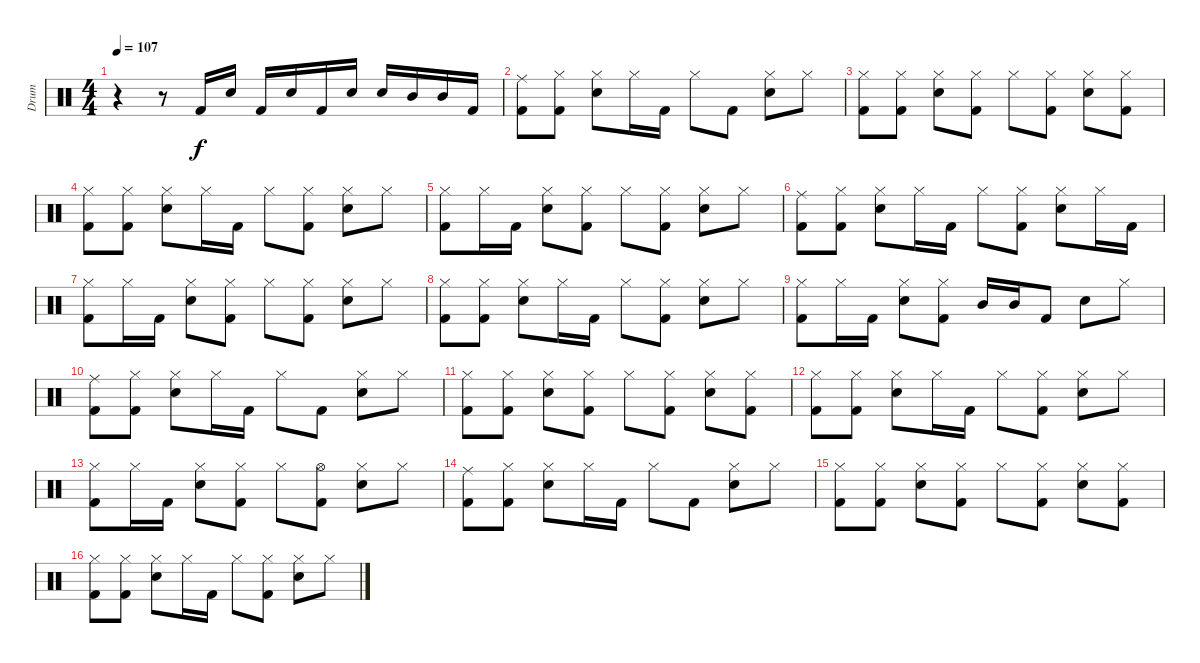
\track ("Drum" "Drum") {instrument percussion}
\staff {score}
\articulation defaults
\ts (4 4)
\tempo 107
\clef neutral
\ks c
r.4{dy f} r.8 "Kick (hit) 2".16 "Snare (hit) 2".16 "Kick (hit) 2".16 "Snare (hit) 2".16 "Kick (hit) 2".16 "Snare (hit) 2".16 "Snare (hit) 2".16 "Mid Tom (hit)".16 "Mid Tom (hit)".16 "Kick (hit) 2".16 |
("Ride (middle)" "Kick (hit) 2").8 ("Hi-Hat (closed)" "Kick (hit) 2").8 ("Hi-Hat (closed)" "Snare (hit) 2").8 "Hi-Hat (closed)".16 "Kick (hit) 2".16 "Hi-Hat (closed)".8 "Kick (hit) 2".8 ("Hi-Hat (closed)" "Snare (hit) 2").8 "Hi-Hat (closed)".8 |
("Hi-Hat (closed)" "Kick (hit) 2").8 ("Hi-Hat (closed)" "Kick (hit) 2").8 ("Hi-Hat (closed)" "Snare (hit) 2").8 ("Hi-Hat (closed)" "Kick (hit) 2").8 "Hi-Hat (closed)".8 ("Hi-Hat (closed)" "Kick (hit) 2").8 ("Hi-Hat (closed)" "Snare (hit) 2").8 ("Hi-Hat (closed)" "Kick (hit) 2").8 |
("Hi-Hat (closed)" "Kick (hit) 2").8 ("Hi-Hat (closed)" "Kick (hit) 2").8 ("Hi-Hat (closed)" "Snare (hit) 2").8 "Hi-Hat (closed)".16 "Kick (hit) 2".16 "Hi-Hat (closed)".8 ("Hi-Hat (closed)" "Kick (hit) 2").8 ("Hi-Hat (closed)" "Snare (hit) 2").8 "Hi-Hat (closed)".8 |
("Hi-Hat (closed)" "Kick (hit) 2").8 "Hi-Hat (closed)".16 "Kick (hit) 2".16 ("Hi-Hat (closed)" "Snare (hit) 2").8 ("Hi-Hat (closed)" "Kick (hit) 2").8 "Hi-Hat (closed)".8 ("Hi-Hat (closed)" "Kick (hit) 2").8 ("Hi-Hat (closed)" "Snare (hit) 2").8 "Hi-Hat (closed)".8 |
("Ride (middle)" "Kick (hit) 2").8 ("Hi-Hat (closed)" "Kick (hit) 2").8 ("Hi-Hat (closed)" "Snare (hit) 2").8 "Hi-Hat (closed)".16 "Kick (hit) 2".16 "Hi-Hat (closed)".8 ("Hi-Hat (closed)" "Kick (hit) 2").8 ("Hi-Hat (closed)" "Snare (hit) 2").8 "Hi-Hat (closed)".16 "Kick (hit) 2".16 |
("Hi-Hat (closed)" "Kick (hit) 2").8 "Hi-Hat (closed)".16 "Kick (hit) 2".16 ("Hi-Hat (closed)" "Snare (hit) 2").8 ("Hi-Hat (closed)" "Kick (hit) 2").8 "Hi-Hat (closed)".8 ("Hi-Hat (closed)" "Kick (hit) 2").8 ("Hi-Hat (closed)" "Snare (hit) 2").8 "Hi-Hat (closed)".8 |
("Hi-Hat (closed)" "Kick (hit) 2").8 ("Hi-Hat (closed)" "Kick (hit) 2").8 ("Hi-Hat (closed)" "Snare (hit) 2").8 "Hi-Hat (closed)".16 "Kick (hit) 2".16 "Hi-Hat (closed)".8 ("Hi-Hat (closed)" "Kick (hit) 2").8 ("Hi-Hat (closed)" "Snare (hit) 2").8 "Hi-Hat (closed)".8 |
("Hi-Hat (closed)" "Kick (hit) 2").8 "Hi-Hat (closed)".16 "Kick (hit) 2".16 ("Hi-Hat (closed)" "Snare (hit) 2").8 ("Hi-Hat (closed)" "Kick (hit) 2").8 "Mid Tom (hit)".16 "Mid Tom (hit)".16 "Kick (hit) 2".8 "Snare (hit) 2".8 "Hi-Hat (closed)".8 |
("Ride (middle)" "Kick (hit) 2").8 ("Hi-Hat (closed)" "Kick (hit) 2").8 ("Hi-Hat (closed)" "Snare (hit) 2").8 "Hi-Hat (closed)".16 "Kick (hit) 2".16 "Hi-Hat (closed)".8 "Kick (hit) 2".8 ("Hi-Hat (closed)" "Snare (hit) 2").8 "Hi-Hat (closed)".8 |
("Hi-Hat (closed)" "Kick (hit) 2").8 ("Hi-Hat (closed)" "Kick (hit) 2").8 ("Hi-Hat (closed)" "Snare (hit) 2").8 ("Hi-Hat (closed)" "Kick (hit) 2").8 "Hi-Hat (closed)".8 ("Hi-Hat (closed)" "Kick (hit) 2").8 ("Hi-Hat (closed)" "Snare (hit) 2").8 ("Hi-Hat (closed)" "Kick (hit) 2").8 |
("Hi-Hat (closed)" "Kick (hit) 2").8 ("Hi-Hat (closed)" "Kick (hit) 2").8 ("Hi-Hat (closed)" "Snare (hit) 2").8 "Hi-Hat (closed)".16 "Kick (hit) 2".16 "Hi-Hat (closed)".8 ("Hi-Hat (closed)" "Kick (hit) 2").8 ("Hi-Hat (closed)" "Snare (hit) 2").8 "Hi-Hat (closed)".8 |
("Hi-Hat (closed)" "Kick (hit) 2").8 "Hi-Hat (closed)".16 "Kick (hit) 2".16 ("Hi-Hat (closed)" "Snare (hit) 2").8 ("Hi-Hat (closed)" "Kick (hit) 2").8 "Hi-Hat (closed)".8 ("Hi-Hat (open)" "Kick (hit) 2").8 ("Hi-Hat (closed)" "Snare (hit) 2").8 "Hi-Hat (closed)".8 |
("Ride (middle)" "Kick (hit) 2").8 ("Hi-Hat (closed)" "Kick (hit) 2").8 ("Hi-Hat (closed)" "Snare (hit) 2").8 "Hi-Hat (closed)".16 "Kick (hit) 2".16 "Hi-Hat (closed)".8 "Kick (hit) 2".8 ("Hi-Hat (closed)" "Snare (hit) 2").8 "Hi-Hat (closed)".8 |
("Hi-Hat (closed)" "Kick (hit) 2").8 ("Hi-Hat (closed)" "Kick (hit) 2").8 ("Hi-Hat (closed)" "Snare (hit) 2").8 ("Hi-Hat (closed)" "Kick (hit) 2").8 "Hi-Hat (closed)".8 ("Hi-Hat (closed)" "Kick (hit) 2").8 ("Hi-Hat (closed)" "Snare (hit) 2").8 ("Hi-Hat (closed)" "Kick (hit) 2").8 |
("Hi-Hat (closed)" "Kick (hit) 2").8 ("Hi-Hat (closed)" "Kick (hit) 2").8 ("Hi-Hat (closed)" "Snare (hit) 2").8 "Hi-Hat (closed)".16 "Kick (hit) 2".16 "Hi-Hat (closed)".8 ("Hi-Hat (closed)" "Kick (hit) 2").8 ("Hi-Hat (closed)" "Snare (hit) 2").8 "Hi-Hat (closed)".8
